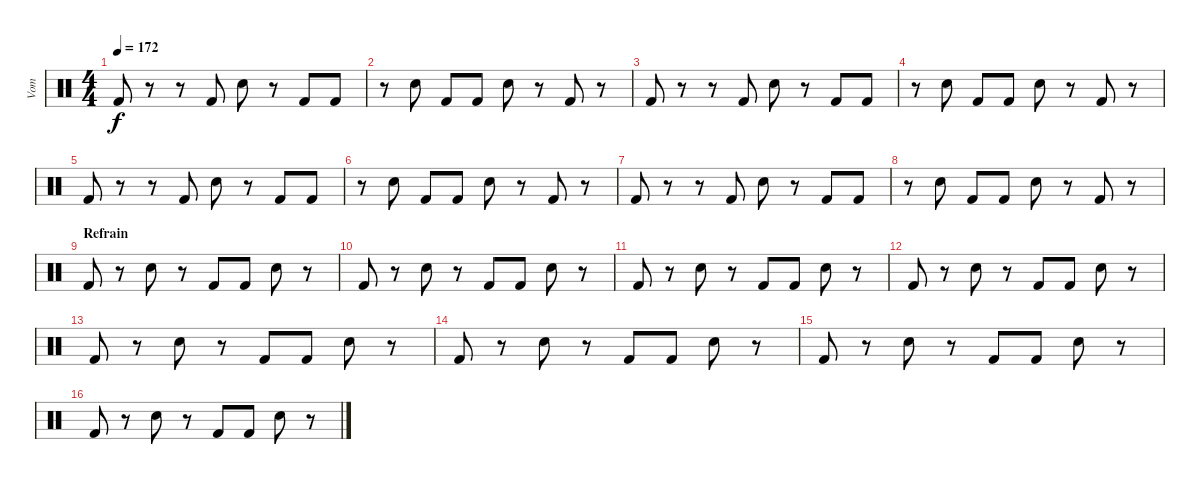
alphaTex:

\track ("Vom" "Vom") {instrument percussion}
\staff {score}
\articulation defaults
\ts (4 4)
\tempo 172
\clef neutral
\ks c "Kick (hit) 2".8{dy f}
r.8 r.8 "Kick (hit) 2".8 "Snare (hit) 2".8 r.8 "Kick (hit) 2".8 "Kick (hit) 2".8 |
r.8 "Snare (hit) 2".8 "Kick (hit) 2".8 "Kick (hit) 2".8 "Snare (hit) 2".8 r.8 "Kick (hit) 2".8 r.8 |
"Kick (hit) 2".8 r.8 r.8 "Kick (hit) 2".8 "Snare (hit) 2".8 r.8 "Kick (hit) 2".8 "Kick (hit) 2".8 |
r.8 "Snare (hit) 2".8 "Kick (hit) 2".8 "Kick (hit) 2".8 "Snare (hit) 2".8 r.8 "Kick (hit) 2".8 r.8 |
"Kick (hit) 2".8 r.8 r.8 "Kick (hit) 2".8 "Snare (hit) 2".8 r.8 "Kick (hit) 2".8 "Kick (hit) 2".8 |
r.8 "Snare (hit) 2".8 "Kick (hit) 2".8 "Kick (hit) 2".8 "Snare (hit) 2".8 r.8 "Kick (hit) 2".8 r.8 |
"Kick (hit) 2".8 r.8 r.8 "Kick (hit) 2".8 "Snare (hit) 2".8 r.8 "Kick (hit) 2".8 "Kick (hit) 2".8 |
r.8 "Snare (hit) 2".8 "Kick (hit) 2".8 "Kick (hit) 2".8 "Snare (hit) 2".8 r.8 "Kick (hit) 2".8 r.8 |
\section ("" "Refrain")
"Kick (hit) 2".8 r.8 "Snare (hit) 2".8 r.8 "Kick (hit) 2".8 "Kick (hit) 2".8 "Snare (hit) 2".8 r.8 |
"Kick (hit) 2".8 r.8 "Snare (hit) 2".8 r.8 "Kick (hit) 2".8 "Kick (hit) 2".8 "Snare (hit) 2".8 r.8 |
"Kick (hit) 2".8 r.8 "Snare (hit) 2".8 r.8 "Kick (hit) 2".8 "Kick (hit) 2".8 "Snare (hit) 2".8 r.8 |
"Kick (hit) 2".8 r.8 "Snare (hit) 2".8 r.8 "Kick (hit) 2".8 "Kick (hit) 2".8 "Snare (hit) 2".8 r.8 |
"Kick (hit) 2".8 r.8 "Snare (hit) 2".8 r.8 "Kick (hit) 2".8 "Kick (hit) 2".8 "Snare (hit) 2".8 r.8 |
"Kick (hit) 2".8 r.8 "Snare (hit) 2".8 r.8 "Kick (hit) 2".8 "Kick (hit) 2".8 "Snare (hit) 2".8 r.8 |
"Kick (hit) 2".8 r.8 "Snare (hit) 2".8 r.8 "Kick (hit) 2".8 "Kick (hit) 2".8 "Snare (hit) 2".8 r.8 |
"Kick (hit) 2".8 r.8 "Snare (hit) 2".8 r.8 "Kick (hit) 2".8 "Kick (hit) 2".8 "Snare (hit) 2".8 r.8
